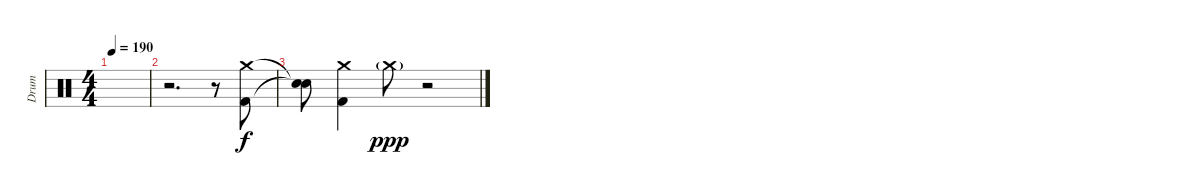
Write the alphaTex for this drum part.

\track ("Drum" "Drum") {instrument percussion}
\staff {score}
\articulation defaults
\ts (4 4)
\tempo 190
\clef neutral
\ks c
|
r.2{d} r.8 ("Crash medium (hit)" "Kick (hit) 2").8 |
("Snare (hit)"{t} "Snare (hit)"{t}).8 ("Crash medium (hit)" "Kick (hit) 2").4 "Crash medium (hit)"{g}.8{dy ppp} r.2
